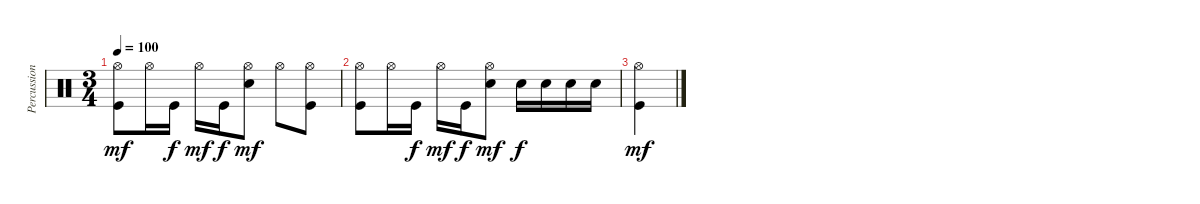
\track ("Percussions" "Percussion") {instrument percussion}
\staff {score}
\articulation defaults
\ts (3 4)
\tempo 100
\clef neutral
\ks c
("Kick (hit)" "Hi-Hat (open)").8{dy mf} "Hi-Hat (open)".16 "Kick (hit)".16{dy f} "Hi-Hat (open)".16{dy mf} "Kick (hit)".16{dy f} ("Electric Snare (hit)" "Hi-Hat (open)").8{dy mf} "Hi-Hat (open)".8 ("Kick (hit)" "Hi-Hat (open)").8 |
("Kick (hit)" "Hi-Hat (open)").8 "Hi-Hat (open)".16 "Kick (hit)".16{dy f} "Hi-Hat (open)".16{dy mf} "Kick (hit)".16{dy f} ("Electric Snare (hit)" "Hi-Hat (open)").8{dy mf} "Electric Snare (hit)".16{dy f} "Electric Snare (hit)".16 "Electric Snare (hit)".16 "Electric Snare (hit)".16 |
("Kick (hit)" "Hi-Hat (open)").4{dy mf}
